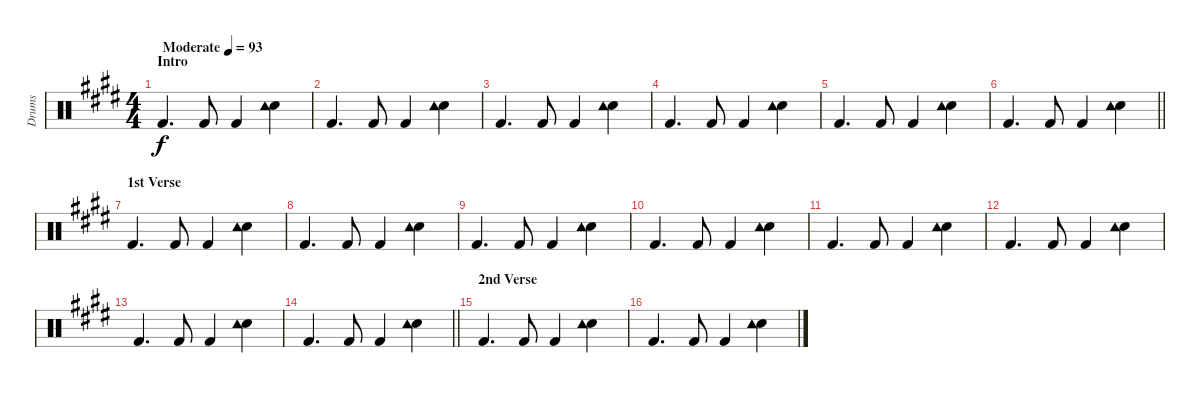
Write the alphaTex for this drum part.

\track ("Drums" "Drums") {instrument percussion}
\staff {score}
\articulation defaults
\ts (4 4)
\section ("" "Intro")
\tempo (93 "Moderate")
\clef neutral
\ks c#minor "Kick (hit) 2".4{d dy f} "Kick (hit) 2".8 "Kick (hit) 2".4
("Electric Snare (hit)" "Tambourine (hit)").4 |
"Kick (hit) 2".4{d} "Kick (hit) 2".8 "Kick (hit) 2".4 ("Electric Snare (hit)" "Tambourine (hit)").4 |
"Kick (hit) 2".4{d} "Kick (hit) 2".8 "Kick (hit) 2".4 ("Electric Snare (hit)" "Tambourine (hit)").4 |
"Kick (hit) 2".4{d} "Kick (hit) 2".8 "Kick (hit) 2".4 ("Electric Snare (hit)" "Tambourine (hit)").4 |
"Kick (hit) 2".4{d} "Kick (hit) 2".8 "Kick (hit) 2".4 ("Electric Snare (hit)" "Tambourine (hit)").4 |
\barLineRight lightlight "Kick (hit) 2".4{d} "Kick (hit) 2".8 "Kick (hit) 2".4
("Electric Snare (hit)" "Tambourine (hit)").4 |
\section ("" "1st Verse")
"Kick (hit) 2".4{d} "Kick (hit) 2".8 "Kick (hit) 2".4 ("Electric Snare (hit)" "Tambourine (hit)").4 |
"Kick (hit) 2".4{d} "Kick (hit) 2".8 "Kick (hit) 2".4 ("Electric Snare (hit)" "Tambourine (hit)").4 |
"Kick (hit) 2".4{d} "Kick (hit) 2".8 "Kick (hit) 2".4 ("Electric Snare (hit)" "Tambourine (hit)").4 |
"Kick (hit) 2".4{d} "Kick (hit) 2".8 "Kick (hit) 2".4 ("Electric Snare (hit)" "Tambourine (hit)").4 |
"Kick (hit) 2".4{d} "Kick (hit) 2".8 "Kick (hit) 2".4 ("Electric Snare (hit)" "Tambourine (hit)").4 |
"Kick (hit) 2".4{d} "Kick (hit) 2".8 "Kick (hit) 2".4 ("Electric Snare (hit)" "Tambourine (hit)").4 |
"Kick (hit) 2".4{d} "Kick (hit) 2".8 "Kick (hit) 2".4 ("Electric Snare (hit)" "Tambourine (hit)").4 |
\barLineRight lightlight "Kick (hit) 2".4{d} "Kick (hit) 2".8 "Kick (hit) 2".4
("Electric Snare (hit)" "Tambourine (hit)").4 |
\section ("" "2nd Verse")
"Kick (hit) 2".4{d} "Kick (hit) 2".8 "Kick (hit) 2".4 ("Electric Snare (hit)" "Tambourine (hit)").4 |
"Kick (hit) 2".4{d} "Kick (hit) 2".8 "Kick (hit) 2".4 ("Electric Snare (hit)" "Tambourine (hit)").4
